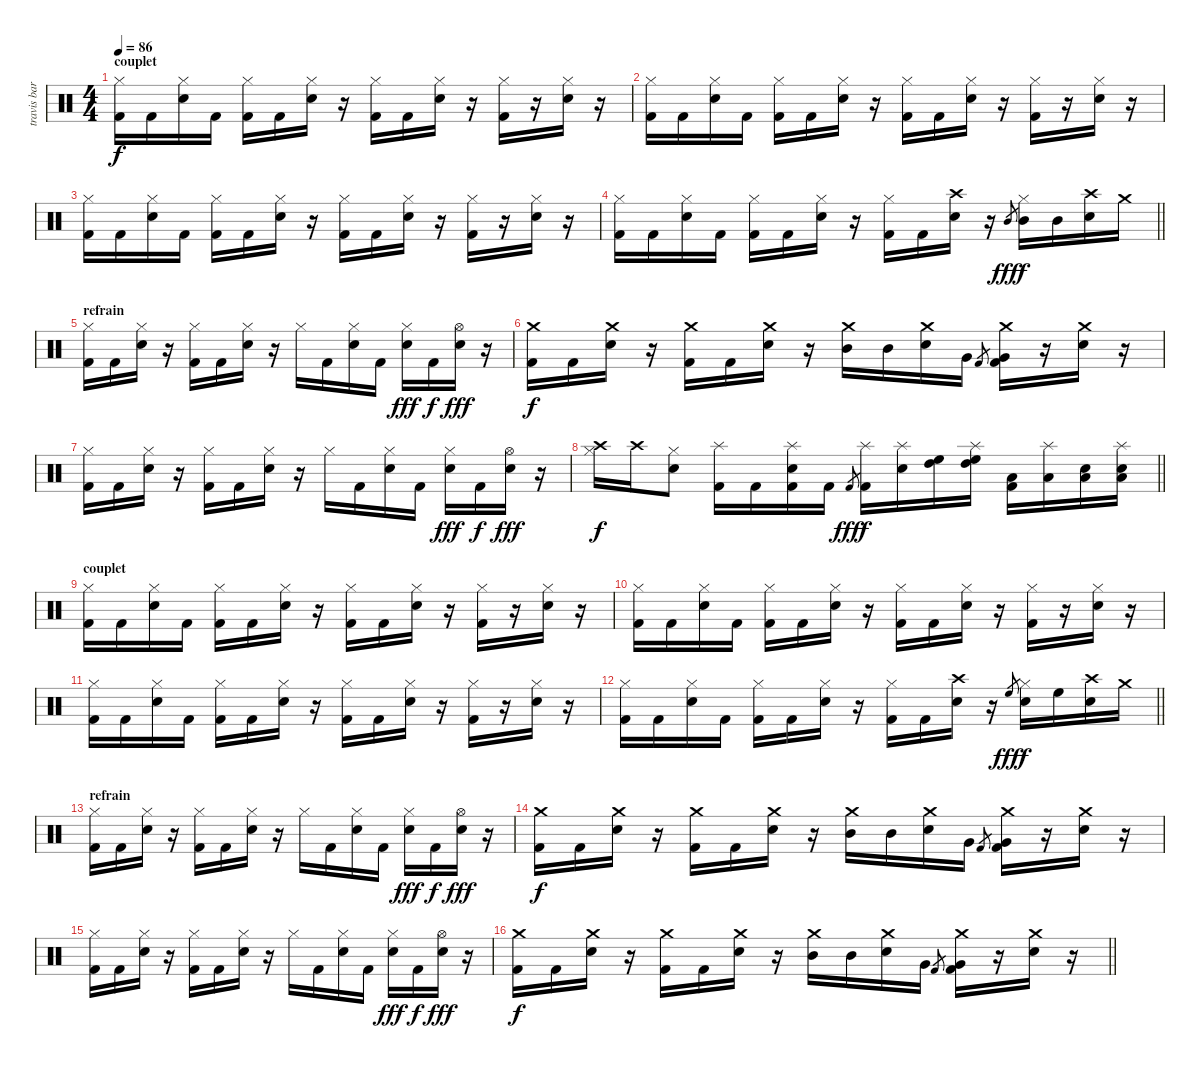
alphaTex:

\track ("travis barker drums" "travis bar") {instrument percussion}
\staff {score}
\articulation defaults
\ts (4 4)
\section ("" "couplet")
\tempo 86
\clef neutral
\ks c
("Hi-Hat (closed)" "Kick (hit) 2").16{dy f} "Kick (hit) 2".16 ("Hi-Hat (closed)" "Snare (hit) 2").16 "Kick (hit) 2".16 ("Hi-Hat (closed)" "Kick (hit) 2").16 "Kick (hit) 2".16 ("Hi-Hat (closed)" "Snare (hit) 2").16 r.16 ("Hi-Hat (closed)" "Kick (hit) 2").16 "Kick (hit) 2".16 ("Hi-Hat (closed)" "Snare (hit) 2").16 r.16 ("Hi-Hat (closed)" "Kick (hit) 2").16 r.16 ("Hi-Hat (closed)" "Snare (hit) 2").16 r.16 |
("Hi-Hat (closed)" "Kick (hit) 2").16 "Kick (hit) 2".16 ("Hi-Hat (closed)" "Snare (hit) 2").16 "Kick (hit) 2".16 ("Hi-Hat (closed)" "Kick (hit) 2").16 "Kick (hit) 2".16 ("Hi-Hat (closed)" "Snare (hit) 2").16 r.16 ("Hi-Hat (closed)" "Kick (hit) 2").16 "Kick (hit) 2".16 ("Hi-Hat (closed)" "Snare (hit) 2").16 r.16 ("Hi-Hat (closed)" "Kick (hit) 2").16 r.16 ("Hi-Hat (closed)" "Snare (hit) 2").16 r.16 |
("Hi-Hat (closed)" "Kick (hit) 2").16 "Kick (hit) 2".16 ("Hi-Hat (closed)" "Snare (hit) 2").16 "Kick (hit) 2".16 ("Hi-Hat (closed)" "Kick (hit) 2").16 "Kick (hit) 2".16 ("Hi-Hat (closed)" "Snare (hit) 2").16 r.16 ("Hi-Hat (closed)" "Kick (hit) 2").16 "Kick (hit) 2".16 ("Hi-Hat (closed)" "Snare (hit) 2").16 r.16 ("Hi-Hat (closed)" "Kick (hit) 2").16 r.16 ("Hi-Hat (closed)" "Snare (hit) 2").16 r.16 |
\barLineRight lightlight
("Hi-Hat (closed)" "Kick (hit) 2").16 "Kick (hit) 2".16 ("Hi-Hat (closed)" "Snare (hit) 2").16 "Kick (hit) 2".16 ("Hi-Hat (closed)" "Kick (hit) 2").16 "Kick (hit) 2".16 ("Hi-Hat (closed)" "Snare (hit) 2").16 r.16 ("Hi-Hat (closed)" "Kick (hit) 2").16 "Kick (hit) 2".16 ("Crash high (hit)" "Snare (hit) 2").16 r.16 "Mid Tom (hit)".8{gr dy fff} ("Hi-Hat (closed)" "Mid Tom (hit)").16{dy f} "Mid Tom (hit)".16 ("Crash high (hit)" "Snare (hit) 2").16 "Crash medium (hit)".16 |
\section ("" "refrain")
("Hi-Hat (closed)" "Kick (hit) 2").16 "Kick (hit) 2".16 ("Hi-Hat (closed)" "Snare (hit) 2").16 r.16 ("Hi-Hat (closed)" "Kick (hit) 2").16 "Kick (hit) 2".16 ("Hi-Hat (closed)" "Snare (hit) 2").16 r.16 "Hi-Hat (closed)".16 "Kick (hit) 2".16 ("Hi-Hat (closed)" "Snare (hit) 2").16 "Kick (hit) 2".16 ("Hi-Hat (closed)" "Snare (hit) 2").16{dy fff} "Kick (hit) 2".16{dy f} ("Hi-Hat (open)" "Snare (hit) 2").16{dy fff} r.16 |
("Crash medium (hit)" "Kick (hit) 2").16{dy f} "Kick (hit) 2".16 ("Crash medium (hit)" "Snare (hit) 2").16 r.16 ("Crash medium (hit)" "Kick (hit) 2").16 "Kick (hit) 2".16 ("Crash medium (hit)" "Snare (hit) 2").16 r.16 ("Crash medium (hit)" "Mid Tom (hit)").16 "Mid Tom (hit)".16 ("Crash medium (hit)" "Snare (hit) 2").16 "Very Low Tom (hit)".16 "Kick (hit) 2".8{gr} ("Crash medium (hit)" "Kick (hit) 2" "Very Low Tom (hit)").16 r.16 ("Crash medium (hit)" "Snare (hit) 2").16 r.16 |
("Hi-Hat (closed)" "Kick (hit) 2").16 "Kick (hit) 2".16 ("Hi-Hat (closed)" "Snare (hit) 2").16 r.16 ("Hi-Hat (closed)" "Kick (hit) 2").16 "Kick (hit) 2".16 ("Hi-Hat (closed)" "Snare (hit) 2").16 r.16 "Hi-Hat (closed)".16 "Kick (hit) 2".16 ("Hi-Hat (closed)" "Snare (hit) 2").16 "Kick (hit) 2".16 ("Hi-Hat (closed)" "Snare (hit) 2").16{dy fff} "Kick (hit) 2".16{dy f} ("Hi-Hat (open)" "Snare (hit) 2").16{dy fff} r.16 |
\barLineRight lightlight
("Hi-Hat (closed)" "Crash high (hit)").16{dy f} "Crash high (hit)".16 ("Hi-Hat (closed)" "Snare (hit) 2").8 ("Splash (hit)" "Kick (hit) 2").16 "Kick (hit) 2".16 ("Snare (hit) 2" "Splash (hit)" "Kick (hit) 2"{tr (36 64)}).16 "Kick (hit) 2".16 "Kick (hit) 2".8{gr dy fff} ("Splash (hit)" "Kick (hit) 2").16{dy f} ("Splash (hit)" "Snare (hit) 2").16 ("High Floor Tom (hit)" "High Tom (hit)").16 ("Splash (hit)" "High Floor Tom (hit)" "High Tom (hit)").16 ("Low Tom (hit)" "Kick (hit) 2"{tr (36 64)}).16 ("Splash (hit)" "Low Tom (hit)").16 ("Snare (hit) 2" "Low Floor Tom (hit)").16 ("Splash (hit)" "Snare (hit) 2" "Low Floor Tom (hit)").16 |
\section ("" "couplet")
("Hi-Hat (closed)" "Kick (hit) 2").16 "Kick (hit) 2".16 ("Hi-Hat (closed)" "Snare (hit) 2").16 "Kick (hit) 2".16 ("Hi-Hat (closed)" "Kick (hit) 2").16 "Kick (hit) 2".16 ("Hi-Hat (closed)" "Snare (hit) 2").16 r.16 ("Hi-Hat (closed)" "Kick (hit) 2").16 "Kick (hit) 2".16 ("Hi-Hat (closed)" "Snare (hit) 2").16 r.16 ("Hi-Hat (closed)" "Kick (hit) 2").16 r.16 ("Hi-Hat (closed)" "Snare (hit) 2").16 r.16 |
("Hi-Hat (closed)" "Kick (hit) 2").16 "Kick (hit) 2".16 ("Hi-Hat (closed)" "Snare (hit) 2").16 "Kick (hit) 2".16 ("Hi-Hat (closed)" "Kick (hit) 2").16 "Kick (hit) 2".16 ("Hi-Hat (closed)" "Snare (hit) 2").16 r.16 ("Hi-Hat (closed)" "Kick (hit) 2").16 "Kick (hit) 2".16 ("Hi-Hat (closed)" "Snare (hit) 2").16 r.16 ("Hi-Hat (closed)" "Kick (hit) 2").16 r.16 ("Hi-Hat (closed)" "Snare (hit) 2").16 r.16 |
("Hi-Hat (closed)" "Kick (hit) 2").16 "Kick (hit) 2".16 ("Hi-Hat (closed)" "Snare (hit) 2").16 "Kick (hit) 2".16 ("Hi-Hat (closed)" "Kick (hit) 2").16 "Kick (hit) 2".16 ("Hi-Hat (closed)" "Snare (hit) 2").16 r.16 ("Hi-Hat (closed)" "Kick (hit) 2").16 "Kick (hit) 2".16 ("Hi-Hat (closed)" "Snare (hit) 2").16 r.16 ("Hi-Hat (closed)" "Kick (hit) 2").16 r.16 ("Hi-Hat (closed)" "Snare (hit) 2").16 r.16 |
\barLineRight lightlight
("Hi-Hat (closed)" "Kick (hit) 2").16 "Kick (hit) 2".16 ("Hi-Hat (closed)" "Snare (hit) 2").16 "Kick (hit) 2".16 ("Hi-Hat (closed)" "Kick (hit) 2").16 "Kick (hit) 2".16 ("Hi-Hat (closed)" "Snare (hit) 2").16 r.16 ("Hi-Hat (closed)" "Kick (hit) 2").16 "Kick (hit) 2".16 ("Crash high (hit)" "Snare (hit) 2").16 r.16 "High Floor Tom (hit)".8{gr dy fff} ("Hi-Hat (closed)" "Snare (hit)").16{dy f} "High Floor Tom (hit)".16 ("Crash high (hit)" "Snare (hit) 2").16 "Crash medium (hit)".16 |
\section ("" "refrain")
("Hi-Hat (closed)" "Kick (hit) 2").16 "Kick (hit) 2".16 ("Hi-Hat (closed)" "Snare (hit) 2").16 r.16 ("Hi-Hat (closed)" "Kick (hit) 2").16 "Kick (hit) 2".16 ("Hi-Hat (closed)" "Snare (hit) 2").16 r.16 "Hi-Hat (closed)".16 "Kick (hit) 2".16 ("Hi-Hat (closed)" "Snare (hit) 2").16 "Kick (hit) 2".16 ("Hi-Hat (closed)" "Snare (hit) 2").16{dy fff} "Kick (hit) 2".16{dy f} ("Hi-Hat (open)" "Snare (hit) 2").16{dy fff} r.16 |
("Crash medium (hit)" "Kick (hit) 2").16{dy f} "Kick (hit) 2".16 ("Crash medium (hit)" "Snare (hit) 2").16 r.16 ("Crash medium (hit)" "Kick (hit) 2").16 "Kick (hit) 2".16 ("Crash medium (hit)" "Snare (hit) 2").16 r.16 ("Crash medium (hit)" "Mid Tom (hit)").16 "Mid Tom (hit)".16 ("Crash medium (hit)" "Snare (hit) 2").16 "Very Low Tom (hit)".16 "Kick (hit) 2".8{gr} ("Crash medium (hit)" "Kick (hit) 2" "Very Low Tom (hit)").16 r.16 ("Crash medium (hit)" "Snare (hit) 2").16 r.16 |
("Hi-Hat (closed)" "Kick (hit) 2").16 "Kick (hit) 2".16 ("Hi-Hat (closed)" "Snare (hit) 2").16 r.16 ("Hi-Hat (closed)" "Kick (hit) 2").16 "Kick (hit) 2".16 ("Hi-Hat (closed)" "Snare (hit) 2").16 r.16 "Hi-Hat (closed)".16 "Kick (hit) 2".16 ("Hi-Hat (closed)" "Snare (hit) 2").16 "Kick (hit) 2".16 ("Hi-Hat (closed)" "Snare (hit) 2").16{dy fff} "Kick (hit) 2".16{dy f} ("Hi-Hat (open)" "Snare (hit) 2").16{dy fff} r.16 |
\barLineRight lightlight
("Crash medium (hit)" "Kick (hit) 2").16{dy f} "Kick (hit) 2".16 ("Crash medium (hit)" "Snare (hit) 2").16 r.16 ("Crash medium (hit)" "Kick (hit) 2").16 "Kick (hit) 2".16 ("Crash medium (hit)" "Snare (hit) 2").16 r.16 ("Crash medium (hit)" "Mid Tom (hit)").16 "Mid Tom (hit)".16 ("Crash medium (hit)" "Snare (hit) 2").16 "Very Low Tom (hit)".16 "Kick (hit) 2".8{gr} ("Crash medium (hit)" "Kick (hit) 2" "Very Low Tom (hit)").16 r.16 ("Crash medium (hit)" "Snare (hit) 2").16 r.16
